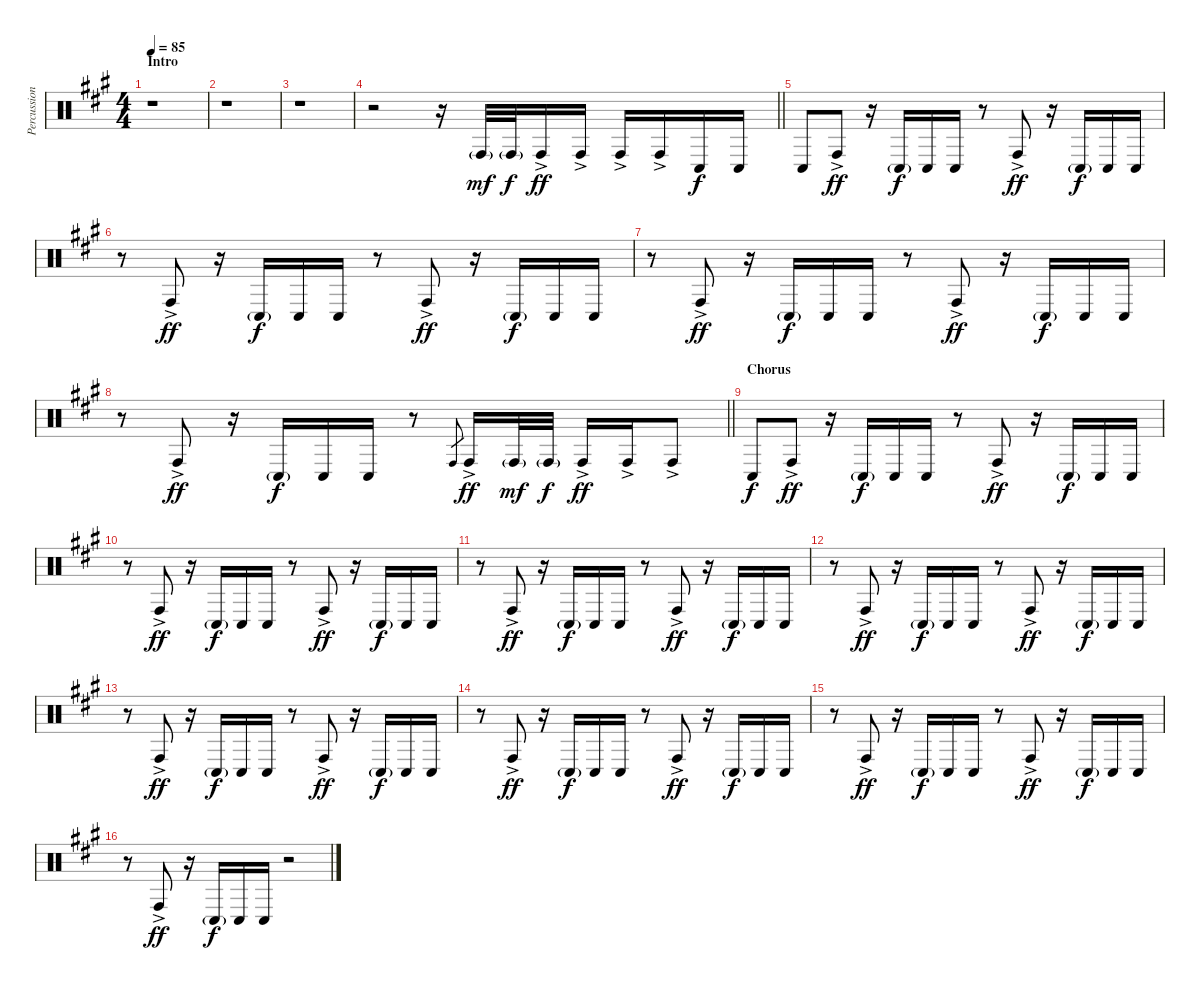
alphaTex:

\track ("Percussion" "Percussion") {instrument percussion}
\staff {score}
\articulation defaults
\ts (4 4)
\section ("" "Intro")
\tempo 85
\clef neutral
\ks a
r.1{dy mf} |
r.1 |
r.1 |
\barLineRight lightlight
r.2 r.16 "Conga high (hit)"{g}.32 "Conga high (hit)"{g}.32{dy f} "Conga high (hit)"{ac}.16{dy ff} "Conga high (hit)"{ac}.16 "Conga high (hit)"{ac}.16 "Conga high (hit)"{ac}.16 "Conga low (hit)".16{dy f} "Conga low (hit)".16 |
"Conga low (hit)".8 "Conga high (hit)"{ac}.8{dy ff} r.16 "Conga low (hit)"{g}.16{dy f} "Conga low (hit)".16 "Conga low (hit)".16 r.8 "Conga high (hit)"{ac}.8{dy ff} r.16 "Conga low (hit)"{g}.16{dy f} "Conga low (hit)".16 "Conga low (hit)".16 |
r.8 "Conga high (hit)"{ac}.8{dy ff} r.16 "Conga low (hit)"{g}.16{dy f} "Conga low (hit)".16 "Conga low (hit)".16 r.8 "Conga high (hit)"{ac}.8{dy ff} r.16 "Conga low (hit)"{g}.16{dy f} "Conga low (hit)".16 "Conga low (hit)".16 |
r.8 "Conga high (hit)"{ac}.8{dy ff} r.16 "Conga low (hit)"{g}.16{dy f} "Conga low (hit)".16 "Conga low (hit)".16 r.8 "Conga high (hit)"{ac}.8{dy ff} r.16 "Conga low (hit)"{g}.16{dy f} "Conga low (hit)".16 "Conga low (hit)".16 |
\barLineRight lightlight
r.8 "Conga high (hit)"{ac}.8{dy ff} r.16 "Conga low (hit)"{g}.16{dy f} "Conga low (hit)".16 "Conga low (hit)".16 r.8 "Conga high (hit)".8{gr} "Conga high (hit)"{ac}.16{dy ff} "Conga high (hit)"{g}.32{dy mf} "Conga high (hit)"{g}.32{dy f} "Conga high (hit)"{ac}.16{dy ff} "Conga high (hit)"{ac}.16 "Conga high (hit)"{ac}.8 |
\section ("" "Chorus")
"Conga low (hit)".8{dy f} "Conga high (hit)"{ac}.8{dy ff} r.16 "Conga low (hit)"{g}.16{dy f} "Conga low (hit)".16 "Conga low (hit)".16 r.8 "Conga high (hit)"{ac}.8{dy ff} r.16 "Conga low (hit)"{g}.16{dy f} "Conga low (hit)".16 "Conga low (hit)".16 |
r.8 "Conga high (hit)"{ac}.8{dy ff} r.16 "Conga low (hit)"{g}.16{dy f} "Conga low (hit)".16 "Conga low (hit)".16 r.8 "Conga high (hit)"{ac}.8{dy ff} r.16 "Conga low (hit)"{g}.16{dy f} "Conga low (hit)".16 "Conga low (hit)".16 |
r.8 "Conga high (hit)"{ac}.8{dy ff} r.16 "Conga low (hit)"{g}.16{dy f} "Conga low (hit)".16 "Conga low (hit)".16 r.8 "Conga high (hit)"{ac}.8{dy ff} r.16 "Conga low (hit)"{g}.16{dy f} "Conga low (hit)".16 "Conga low (hit)".16 |
r.8 "Conga high (hit)"{ac}.8{dy ff} r.16 "Conga low (hit)"{g}.16{dy f} "Conga low (hit)".16 "Conga low (hit)".16 r.8 "Conga high (hit)"{ac}.8{dy ff} r.16 "Conga low (hit)"{g}.16{dy f} "Conga low (hit)".16 "Conga low (hit)".16 |
r.8 "Conga high (hit)"{ac}.8{dy ff} r.16 "Conga low (hit)"{g}.16{dy f} "Conga low (hit)".16 "Conga low (hit)".16 r.8 "Conga high (hit)"{ac}.8{dy ff} r.16 "Conga low (hit)"{g}.16{dy f} "Conga low (hit)".16 "Conga low (hit)".16 |
r.8 "Conga high (hit)"{ac}.8{dy ff} r.16 "Conga low (hit)"{g}.16{dy f} "Conga low (hit)".16 "Conga low (hit)".16 r.8 "Conga high (hit)"{ac}.8{dy ff} r.16 "Conga low (hit)"{g}.16{dy f} "Conga low (hit)".16 "Conga low (hit)".16 |
r.8 "Conga high (hit)"{ac}.8{dy ff} r.16 "Conga low (hit)"{g}.16{dy f} "Conga low (hit)".16 "Conga low (hit)".16 r.8 "Conga high (hit)"{ac}.8{dy ff} r.16 "Conga low (hit)"{g}.16{dy f} "Conga low (hit)".16 "Conga low (hit)".16 |
r.8 "Conga high (hit)"{ac}.8{dy ff} r.16 "Conga low (hit)"{g}.16{dy f} "Conga low (hit)".16 "Conga low (hit)".16 r.2
